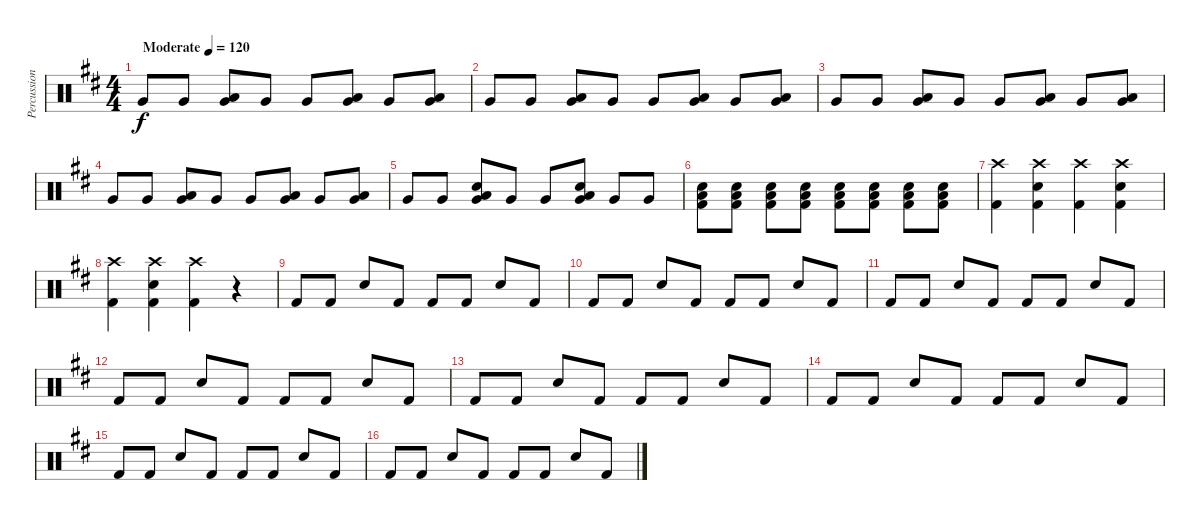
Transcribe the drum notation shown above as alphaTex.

\track ("Percussion" "Percussion") {instrument percussion}
\staff {score}
\articulation defaults
\ts (4 4)
\tempo (120 "Moderate")
\clef neutral
\ks d "Very Low Tom (hit)".8{dy f} "Very Low Tom (hit)".8
("Low Tom (hit)" "Very Low Tom (hit)").8 "Very Low Tom (hit)".8 "Very Low Tom (hit)".8 ("Low Tom (hit)" "Very Low Tom (hit)").8 "Very Low Tom (hit)".8 ("Low Tom (hit)" "Very Low Tom (hit)").8 |
"Very Low Tom (hit)".8 "Very Low Tom (hit)".8 ("Low Tom (hit)" "Very Low Tom (hit)").8 "Very Low Tom (hit)".8 "Very Low Tom (hit)".8 ("Low Tom (hit)" "Very Low Tom (hit)").8 "Very Low Tom (hit)".8 ("Low Tom (hit)" "Very Low Tom (hit)").8 |
"Very Low Tom (hit)".8 "Very Low Tom (hit)".8 ("Low Tom (hit)" "Very Low Tom (hit)").8 "Very Low Tom (hit)".8 "Very Low Tom (hit)".8 ("Low Tom (hit)" "Very Low Tom (hit)").8 "Very Low Tom (hit)".8 ("Low Tom (hit)" "Very Low Tom (hit)").8 |
"Very Low Tom (hit)".8 "Very Low Tom (hit)".8 ("Low Tom (hit)" "Very Low Tom (hit)").8 "Very Low Tom (hit)".8 "Very Low Tom (hit)".8 ("Low Tom (hit)" "Very Low Tom (hit)").8 "Very Low Tom (hit)".8 ("Low Tom (hit)" "Very Low Tom (hit)").8 |
"Very Low Tom (hit)".8 "Very Low Tom (hit)".8 ("Snare (hit) 2" "Low Tom (hit)" "Very Low Tom (hit)").8 "Very Low Tom (hit)".8 "Very Low Tom (hit)".8 ("Snare (hit) 2" "Low Tom (hit)" "Very Low Tom (hit)").8 "Very Low Tom (hit)".8 "Very Low Tom (hit)".8 |
("Snare (hit) 2" "Kick (hit) 2" "Low Floor Tom (hit)").8 ("Snare (hit) 2" "Kick (hit) 2" "Low Floor Tom (hit)").8 ("Snare (hit) 2" "Kick (hit) 2" "Low Floor Tom (hit)").8 ("Snare (hit) 2" "Kick (hit) 2" "Low Floor Tom (hit)").8 ("Snare (hit) 2" "Kick (hit) 2" "Low Floor Tom (hit)").8 ("Snare (hit) 2" "Kick (hit) 2" "Low Floor Tom (hit)").8 ("Snare (hit) 2" "Kick (hit) 2" "Low Floor Tom (hit)").8 ("Snare (hit) 2" "Kick (hit) 2" "Low Floor Tom (hit)").8 |
("Crash high (hit)" "Kick (hit) 2").4 ("Crash high (hit)" "Snare (hit) 2" "Kick (hit) 2").4 ("Crash high (hit)" "Kick (hit) 2").4 ("Crash high (hit)" "Snare (hit) 2" "Kick (hit) 2").4 |
("Crash high (hit)" "Kick (hit) 2").4 ("Crash high (hit)" "Snare (hit) 2" "Kick (hit) 2").4 ("Crash high (hit)" "Kick (hit) 2").4 r.4 |
"Kick (hit) 2".8 "Kick (hit) 2".8 "Snare (hit) 2".8 "Kick (hit) 2".8 "Kick (hit) 2".8 "Kick (hit) 2".8 "Snare (hit) 2".8 "Kick (hit) 2".8 |
"Kick (hit) 2".8 "Kick (hit) 2".8 "Snare (hit) 2".8 "Kick (hit) 2".8 "Kick (hit) 2".8 "Kick (hit) 2".8 "Snare (hit) 2".8 "Kick (hit) 2".8 |
"Kick (hit) 2".8 "Kick (hit) 2".8 "Snare (hit) 2".8 "Kick (hit) 2".8 "Kick (hit) 2".8 "Kick (hit) 2".8 "Snare (hit) 2".8 "Kick (hit) 2".8 |
"Kick (hit) 2".8 "Kick (hit) 2".8 "Snare (hit) 2".8 "Kick (hit) 2".8 "Kick (hit) 2".8 "Kick (hit) 2".8 "Snare (hit) 2".8 "Kick (hit) 2".8 |
"Kick (hit) 2".8 "Kick (hit) 2".8 "Snare (hit) 2".8 "Kick (hit) 2".8 "Kick (hit) 2".8 "Kick (hit) 2".8 "Snare (hit) 2".8 "Kick (hit) 2".8 |
"Kick (hit) 2".8 "Kick (hit) 2".8 "Snare (hit) 2".8 "Kick (hit) 2".8 "Kick (hit) 2".8 "Kick (hit) 2".8 "Snare (hit) 2".8 "Kick (hit) 2".8 |
"Kick (hit) 2".8 "Kick (hit) 2".8 "Snare (hit) 2".8 "Kick (hit) 2".8 "Kick (hit) 2".8 "Kick (hit) 2".8 "Snare (hit) 2".8 "Kick (hit) 2".8 |
"Kick (hit) 2".8 "Kick (hit) 2".8 "Snare (hit) 2".8 "Kick (hit) 2".8 "Kick (hit) 2".8 "Kick (hit) 2".8 "Snare (hit) 2".8 "Kick (hit) 2".8
